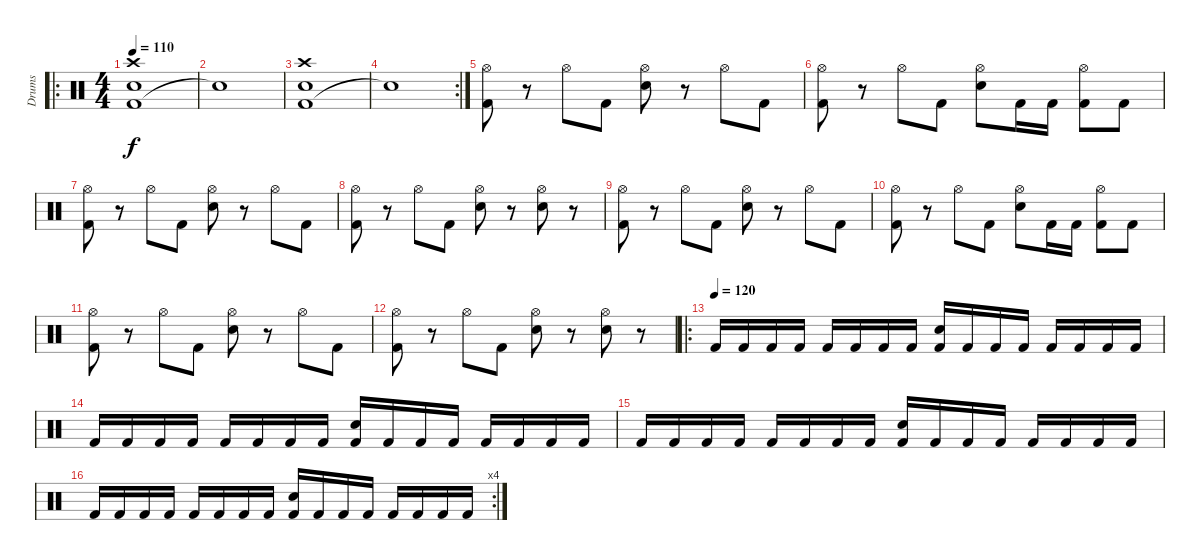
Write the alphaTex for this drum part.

\track ("Drums" "Drums") {instrument percussion}
\staff {score}
\articulation defaults
\ro
\ts (4 4)
\tempo 110
\clef neutral
\ks c
("Kick (hit) 2" "Snare (hit) 2" "Crash high (hit)").1{dy f} |
"Snare (hit)"{t}.1 |
("Kick (hit) 2" "Snare (hit) 2" "Crash high (hit)").1 |
\rc 2 "Snare (hit)"{t}.1
|
("Kick (hit) 2" "Hi-Hat (open)").8 r.8 "Hi-Hat (open)".8 "Kick (hit) 2".8 ("Snare (hit) 2" "Hi-Hat (open)").8 r.8 "Hi-Hat (open)".8 "Kick (hit) 2".8 |
("Kick (hit) 2" "Hi-Hat (open)").8 r.8 "Hi-Hat (open)".8 "Kick (hit) 2".8 ("Snare (hit) 2" "Hi-Hat (open)").8 "Kick (hit) 2".16 "Kick (hit) 2".16 ("Kick (hit) 2" "Hi-Hat (open)").8 "Kick (hit) 2".8 |
("Kick (hit) 2" "Hi-Hat (open)").8 r.8 "Hi-Hat (open)".8 "Kick (hit) 2".8 ("Snare (hit) 2" "Hi-Hat (open)").8 r.8 "Hi-Hat (open)".8 "Kick (hit) 2".8 |
("Kick (hit) 2" "Hi-Hat (open)").8 r.8 "Hi-Hat (open)".8 "Kick (hit) 2".8 ("Snare (hit) 2" "Hi-Hat (open)").8 r.8 ("Snare (hit) 2" "Hi-Hat (open)").8 r.8 |
("Kick (hit) 2" "Hi-Hat (open)").8 r.8 "Hi-Hat (open)".8 "Kick (hit) 2".8 ("Snare (hit) 2" "Hi-Hat (open)").8 r.8 "Hi-Hat (open)".8 "Kick (hit) 2".8 |
("Kick (hit) 2" "Hi-Hat (open)").8 r.8 "Hi-Hat (open)".8 "Kick (hit) 2".8 ("Snare (hit) 2" "Hi-Hat (open)").8 "Kick (hit) 2".16 "Kick (hit) 2".16 ("Kick (hit) 2" "Hi-Hat (open)").8 "Kick (hit) 2".8 |
("Kick (hit) 2" "Hi-Hat (open)").8 r.8 "Hi-Hat (open)".8 "Kick (hit) 2".8 ("Snare (hit) 2" "Hi-Hat (open)").8 r.8 "Hi-Hat (open)".8 "Kick (hit) 2".8 |
("Kick (hit) 2" "Hi-Hat (open)").8 r.8 "Hi-Hat (open)".8 "Kick (hit) 2".8 ("Snare (hit) 2" "Hi-Hat (open)").8 r.8 ("Snare (hit) 2" "Hi-Hat (open)").8 r.8 |
\ro
\tempo (120)
"Kick (hit) 2".16 "Kick (hit) 2".16 "Kick (hit) 2".16 "Kick (hit) 2".16 "Kick (hit) 2".16 "Kick (hit) 2".16 "Kick (hit) 2".16 "Kick (hit) 2".16 ("Kick (hit) 2" "Snare (hit) 2").16 "Kick (hit) 2".16 "Kick (hit) 2".16 "Kick (hit) 2".16 "Kick (hit) 2".16 "Kick (hit) 2".16 "Kick (hit) 2".16 "Kick (hit) 2".16 |
"Kick (hit) 2".16 "Kick (hit) 2".16 "Kick (hit) 2".16 "Kick (hit) 2".16 "Kick (hit) 2".16 "Kick (hit) 2".16 "Kick (hit) 2".16 "Kick (hit) 2".16 ("Kick (hit) 2" "Snare (hit) 2").16 "Kick (hit) 2".16 "Kick (hit) 2".16 "Kick (hit) 2".16 "Kick (hit) 2".16 "Kick (hit) 2".16 "Kick (hit) 2".16 "Kick (hit) 2".16 |
"Kick (hit) 2".16 "Kick (hit) 2".16 "Kick (hit) 2".16 "Kick (hit) 2".16 "Kick (hit) 2".16 "Kick (hit) 2".16 "Kick (hit) 2".16 "Kick (hit) 2".16 ("Kick (hit) 2" "Snare (hit) 2").16 "Kick (hit) 2".16 "Kick (hit) 2".16 "Kick (hit) 2".16 "Kick (hit) 2".16 "Kick (hit) 2".16 "Kick (hit) 2".16 "Kick (hit) 2".16 |
\rc 4 "Kick (hit) 2".16 "Kick (hit) 2".16 "Kick (hit) 2".16 "Kick (hit) 2".16 "Kick (hit) 2".16 "Kick (hit) 2".16 "Kick (hit) 2".16 "Kick (hit) 2".16
("Kick (hit) 2" "Snare (hit) 2").16 "Kick (hit) 2".16 "Kick (hit) 2".16 "Kick (hit) 2".16 "Kick (hit) 2".16 "Kick (hit) 2".16 "Kick (hit) 2".16 "Kick (hit) 2".16
